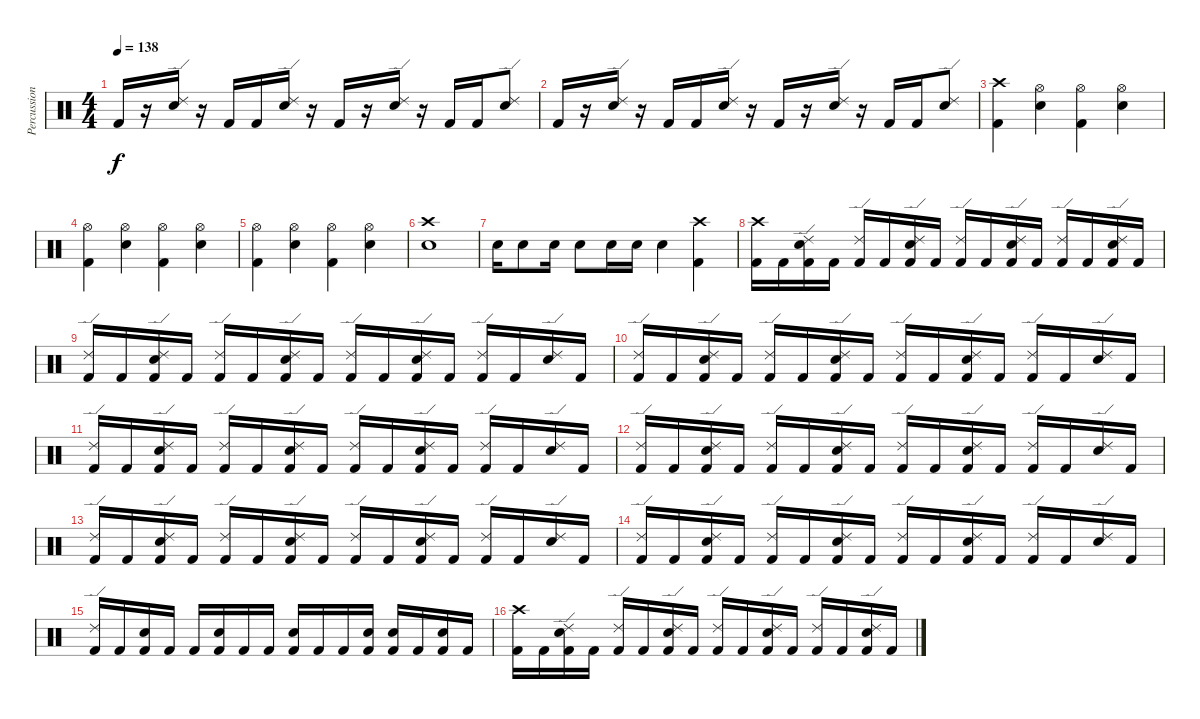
\track ("Percussion" "Percussion") {instrument percussion}
\staff {score}
\articulation defaults
\ts (4 4)
\tempo 138
\clef neutral
\ks c "Kick (hit) 2".16{dy f}
r.16 ("Ride (edge) 2" "Electric Snare (hit)").16 r.16 "Kick (hit) 2".16 "Kick (hit) 2".16 ("Ride (edge) 2" "Electric Snare (hit)").16 r.16 "Kick (hit) 2".16 r.16 ("Ride (edge) 2" "Electric Snare (hit)").16 r.16 "Kick (hit) 2".16 "Kick (hit) 2".16 ("Ride (edge) 2" "Electric Snare (hit)").8 |
"Kick (hit) 2".16 r.16 ("Ride (edge) 2" "Electric Snare (hit)").16 r.16 "Kick (hit) 2".16 "Kick (hit) 2".16 ("Ride (edge) 2" "Electric Snare (hit)").16 r.16 "Kick (hit) 2".16 r.16 ("Ride (edge) 2" "Electric Snare (hit)").16 r.16 "Kick (hit) 2".16 "Kick (hit) 2".16 ("Ride (edge) 2" "Electric Snare (hit)").8 |
("Crash high (hit)" "Kick (hit) 2").4 ("Hi-Hat (open)" "Electric Snare (hit)").4 ("Hi-Hat (open)" "Kick (hit) 2").4 ("Hi-Hat (open)" "Electric Snare (hit)").4 |
("Hi-Hat (open)" "Kick (hit) 2").4 ("Hi-Hat (open)" "Electric Snare (hit)").4 ("Hi-Hat (open)" "Kick (hit) 2").4 ("Hi-Hat (open)" "Electric Snare (hit)").4 |
("Hi-Hat (open)" "Kick (hit) 2").4 ("Hi-Hat (open)" "Electric Snare (hit)").4 ("Hi-Hat (open)" "Kick (hit) 2").4 ("Hi-Hat (open)" "Electric Snare (hit)").4 |
("Crash high (hit)" "Electric Snare (hit)").1 |
"Electric Snare (hit)".16 "Electric Snare (hit)".8 "Electric Snare (hit)".16 "Electric Snare (hit)".8 "Electric Snare (hit)".16 "Electric Snare (hit)".16 "Electric Snare (hit)".4 ("Crash high (hit)" "Kick (hit) 2").4 |
("Crash high (hit)" "Kick (hit) 2").16 "Kick (hit) 2".16 ("Ride (edge) 2" "Electric Snare (hit)" "Kick (hit) 2").16 "Kick (hit) 2".16 ("Ride (edge) 2" "Kick (hit) 2").16 "Kick (hit) 2".16 ("Ride (edge) 2" "Electric Snare (hit)" "Kick (hit) 2").16 "Kick (hit) 2".16 ("Ride (edge) 2" "Kick (hit) 2").16 "Kick (hit) 2".16 ("Ride (edge) 2" "Electric Snare (hit)" "Kick (hit) 2").16 "Kick (hit) 2".16 ("Ride (edge) 2" "Kick (hit) 2").16 "Kick (hit) 2".16 ("Ride (edge) 2" "Electric Snare (hit)" "Kick (hit) 2").16 "Kick (hit) 2".16 |
("Ride (edge) 2" "Kick (hit) 2").16 "Kick (hit) 2".16 ("Ride (edge) 2" "Electric Snare (hit)" "Kick (hit) 2").16 "Kick (hit) 2".16 ("Ride (edge) 2" "Kick (hit) 2").16 "Kick (hit) 2".16 ("Ride (edge) 2" "Electric Snare (hit)" "Kick (hit) 2").16 "Kick (hit) 2".16 ("Ride (edge) 2" "Kick (hit) 2").16 "Kick (hit) 2".16 ("Ride (edge) 2" "Electric Snare (hit)" "Kick (hit) 2").16 "Kick (hit) 2".16 ("Ride (edge) 2" "Kick (hit) 2").16 "Kick (hit) 2".16 ("Ride (edge) 2" "Electric Snare (hit)").16 "Kick (hit) 2".16 |
("Ride (edge) 2" "Kick (hit) 2").16 "Kick (hit) 2".16 ("Ride (edge) 2" "Electric Snare (hit)" "Kick (hit) 2").16 "Kick (hit) 2".16 ("Ride (edge) 2" "Kick (hit) 2").16 "Kick (hit) 2".16 ("Ride (edge) 2" "Electric Snare (hit)" "Kick (hit) 2").16 "Kick (hit) 2".16 ("Ride (edge) 2" "Kick (hit) 2").16 "Kick (hit) 2".16 ("Ride (edge) 2" "Electric Snare (hit)" "Kick (hit) 2").16 "Kick (hit) 2".16 ("Ride (edge) 2" "Kick (hit) 2").16 "Kick (hit) 2".16 ("Ride (edge) 2" "Electric Snare (hit)").16 "Kick (hit) 2".16 |
("Ride (edge) 2" "Kick (hit) 2").16 "Kick (hit) 2".16 ("Ride (edge) 2" "Electric Snare (hit)" "Kick (hit) 2").16 "Kick (hit) 2".16 ("Ride (edge) 2" "Kick (hit) 2").16 "Kick (hit) 2".16 ("Ride (edge) 2" "Electric Snare (hit)" "Kick (hit) 2").16 "Kick (hit) 2".16 ("Ride (edge) 2" "Kick (hit) 2").16 "Kick (hit) 2".16 ("Ride (edge) 2" "Electric Snare (hit)" "Kick (hit) 2").16 "Kick (hit) 2".16 ("Ride (edge) 2" "Kick (hit) 2").16 "Kick (hit) 2".16 ("Ride (edge) 2" "Electric Snare (hit)").16 "Kick (hit) 2".16 |
("Ride (edge) 2" "Kick (hit) 2").16 "Kick (hit) 2".16 ("Ride (edge) 2" "Electric Snare (hit)" "Kick (hit) 2").16 "Kick (hit) 2".16 ("Ride (edge) 2" "Kick (hit) 2").16 "Kick (hit) 2".16 ("Ride (edge) 2" "Electric Snare (hit)" "Kick (hit) 2").16 "Kick (hit) 2".16 ("Ride (edge) 2" "Kick (hit) 2").16 "Kick (hit) 2".16 ("Ride (edge) 2" "Electric Snare (hit)" "Kick (hit) 2").16 "Kick (hit) 2".16 ("Ride (edge) 2" "Kick (hit) 2").16 "Kick (hit) 2".16 ("Ride (edge) 2" "Electric Snare (hit)").16 "Kick (hit) 2".16 |
("Ride (edge) 2" "Kick (hit) 2").16 "Kick (hit) 2".16 ("Ride (edge) 2" "Electric Snare (hit)" "Kick (hit) 2").16 "Kick (hit) 2".16 ("Ride (edge) 2" "Kick (hit) 2").16 "Kick (hit) 2".16 ("Ride (edge) 2" "Electric Snare (hit)" "Kick (hit) 2").16 "Kick (hit) 2".16 ("Ride (edge) 2" "Kick (hit) 2").16 "Kick (hit) 2".16 ("Ride (edge) 2" "Electric Snare (hit)" "Kick (hit) 2").16 "Kick (hit) 2".16 ("Ride (edge) 2" "Kick (hit) 2").16 "Kick (hit) 2".16 ("Ride (edge) 2" "Electric Snare (hit)").16 "Kick (hit) 2".16 |
("Ride (edge) 2" "Kick (hit) 2").16 "Kick (hit) 2".16 ("Ride (edge) 2" "Electric Snare (hit)" "Kick (hit) 2").16 "Kick (hit) 2".16 ("Ride (edge) 2" "Kick (hit) 2").16 "Kick (hit) 2".16 ("Ride (edge) 2" "Electric Snare (hit)" "Kick (hit) 2").16 "Kick (hit) 2".16 ("Ride (edge) 2" "Kick (hit) 2").16 "Kick (hit) 2".16 ("Ride (edge) 2" "Electric Snare (hit)" "Kick (hit) 2").16 "Kick (hit) 2".16 ("Ride (edge) 2" "Kick (hit) 2").16 "Kick (hit) 2".16 ("Ride (edge) 2" "Electric Snare (hit)").16 "Kick (hit) 2".16 |
("Ride (edge) 2" "Kick (hit) 2").16 "Kick (hit) 2".16 ("Electric Snare (hit)" "Kick (hit) 2").16 "Kick (hit) 2".16 "Kick (hit) 2".16 ("Electric Snare (hit)" "Kick (hit) 2").16 "Kick (hit) 2".16 "Kick (hit) 2".16 ("Electric Snare (hit)" "Kick (hit) 2").16 "Kick (hit) 2".16 "Kick (hit) 2".16 ("Electric Snare (hit)" "Kick (hit) 2").16 ("Electric Snare (hit)" "Kick (hit) 2").16 "Kick (hit) 2".16 ("Electric Snare (hit)" "Kick (hit) 2").16 "Kick (hit) 2".16 |
("Crash high (hit)" "Kick (hit) 2").16 "Kick (hit) 2".16 ("Ride (edge) 2" "Electric Snare (hit)" "Kick (hit) 2").16 "Kick (hit) 2".16 ("Ride (edge) 2" "Kick (hit) 2").16 "Kick (hit) 2".16 ("Ride (edge) 2" "Electric Snare (hit)" "Kick (hit) 2").16 "Kick (hit) 2".16 ("Ride (edge) 2" "Kick (hit) 2").16 "Kick (hit) 2".16 ("Ride (edge) 2" "Electric Snare (hit)" "Kick (hit) 2").16 "Kick (hit) 2".16 ("Ride (edge) 2" "Kick (hit) 2").16 "Kick (hit) 2".16 ("Ride (edge) 2" "Electric Snare (hit)" "Kick (hit) 2").16 "Kick (hit) 2".16
